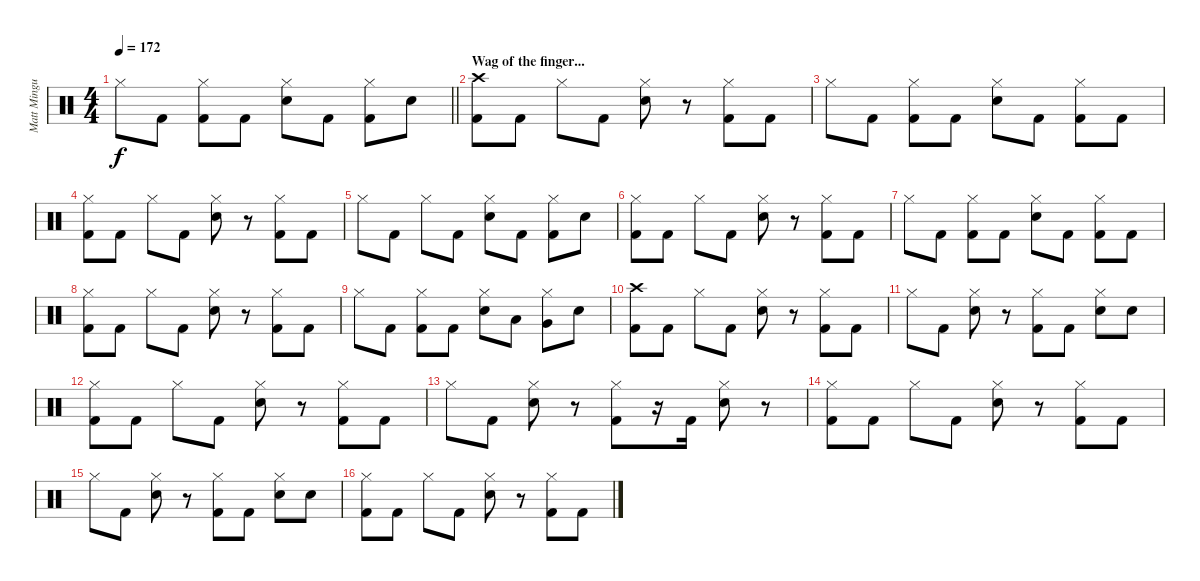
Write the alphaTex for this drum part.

\track ("Matt Mingus (Drum Kit)" "Matt Mingu") {instrument percussion}
\staff {score}
\articulation defaults
\ts (4 4)
\tempo 172
\clef neutral
\barLineRight lightlight
\ks c "Hi-Hat (closed)".8{dy f} "Kick (hit) 2".8
("Hi-Hat (closed)" "Kick (hit) 2").8 "Kick (hit) 2".8 ("Hi-Hat (closed)" "Electric Snare (hit)").8 "Kick (hit) 2".8 ("Hi-Hat (closed)" "Kick (hit) 2").8 "Electric Snare (hit)".8 |
\section ("" "Wag of the finger...")
("Crash high (hit)" "Kick (hit) 2").8 "Kick (hit) 2".8 "Hi-Hat (closed)".8 "Kick (hit) 2".8 ("Hi-Hat (closed)" "Electric Snare (hit)").8 r.8 ("Hi-Hat (closed)" "Kick (hit) 2").8 "Kick (hit) 2".8 |
"Hi-Hat (closed)".8 "Kick (hit) 2".8 ("Hi-Hat (closed)" "Kick (hit) 2").8 "Kick (hit) 2".8 ("Hi-Hat (closed)" "Electric Snare (hit)").8 "Kick (hit) 2".8 ("Hi-Hat (closed)" "Kick (hit) 2").8 "Kick (hit) 2".8 |
("Hi-Hat (closed)" "Kick (hit) 2").8 "Kick (hit) 2".8 "Hi-Hat (closed)".8 "Kick (hit) 2".8 ("Hi-Hat (closed)" "Electric Snare (hit)").8 r.8 ("Hi-Hat (closed)" "Kick (hit) 2").8 "Kick (hit) 2".8 |
"Hi-Hat (closed)".8 "Kick (hit) 2".8 "Hi-Hat (closed)".8 "Kick (hit) 2".8 ("Hi-Hat (closed)" "Electric Snare (hit)").8 "Kick (hit) 2".8 ("Hi-Hat (closed)" "Kick (hit) 2").8 "Electric Snare (hit)".8 |
("Hi-Hat (closed)" "Kick (hit) 2").8 "Kick (hit) 2".8 "Hi-Hat (closed)".8 "Kick (hit) 2".8 ("Hi-Hat (closed)" "Electric Snare (hit)").8 r.8 ("Hi-Hat (closed)" "Kick (hit) 2").8 "Kick (hit) 2".8 |
"Hi-Hat (closed)".8 "Kick (hit) 2".8 ("Hi-Hat (closed)" "Kick (hit) 2").8 "Kick (hit) 2".8 ("Hi-Hat (closed)" "Electric Snare (hit)").8 "Kick (hit) 2".8 ("Hi-Hat (closed)" "Kick (hit) 2").8 "Kick (hit) 2".8 |
("Hi-Hat (closed)" "Kick (hit) 2").8 "Kick (hit) 2".8 "Hi-Hat (closed)".8 "Kick (hit) 2".8 ("Hi-Hat (closed)" "Electric Snare (hit)").8 r.8 ("Hi-Hat (closed)" "Kick (hit) 2").8 "Kick (hit) 2".8 |
"Hi-Hat (closed)".8 "Kick (hit) 2".8 ("Hi-Hat (closed)" "Kick (hit) 2").8 "Kick (hit) 2".8 ("Hi-Hat (closed)" "Electric Snare (hit)").8 "Low Tom (hit)".8 ("Hi-Hat (closed)" "Very Low Tom (hit)").8 "Electric Snare (hit)".8 |
("Crash high (hit)" "Kick (hit) 2").8 "Kick (hit) 2".8 "Hi-Hat (closed)".8 "Kick (hit) 2".8 ("Hi-Hat (closed)" "Electric Snare (hit)").8 r.8 ("Hi-Hat (closed)" "Kick (hit) 2").8 "Kick (hit) 2".8 |
"Hi-Hat (closed)".8 "Kick (hit) 2".8 ("Hi-Hat (closed)" "Electric Snare (hit)").8 r.8 ("Hi-Hat (closed)" "Kick (hit) 2").8 "Kick (hit) 2".8 ("Hi-Hat (closed)" "Electric Snare (hit)").8 "Electric Snare (hit)".8 |
("Hi-Hat (closed)" "Kick (hit) 2").8 "Kick (hit) 2".8 "Hi-Hat (closed)".8 "Kick (hit) 2".8 ("Hi-Hat (closed)" "Electric Snare (hit)").8 r.8 ("Hi-Hat (closed)" "Kick (hit) 2").8 "Kick (hit) 2".8 |
"Hi-Hat (closed)".8 "Kick (hit) 2".8 ("Hi-Hat (closed)" "Electric Snare (hit)").8 r.8 ("Hi-Hat (closed)" "Kick (hit) 2").8 r.16 "Kick (hit) 2".16 ("Hi-Hat (closed)" "Electric Snare (hit)").8 r.8 |
("Hi-Hat (closed)" "Kick (hit) 2").8 "Kick (hit) 2".8 "Hi-Hat (closed)".8 "Kick (hit) 2".8 ("Hi-Hat (closed)" "Electric Snare (hit)").8 r.8 ("Hi-Hat (closed)" "Kick (hit) 2").8 "Kick (hit) 2".8 |
"Hi-Hat (closed)".8 "Kick (hit) 2".8 ("Hi-Hat (closed)" "Electric Snare (hit)").8 r.8 ("Hi-Hat (closed)" "Kick (hit) 2").8 "Kick (hit) 2".8 ("Hi-Hat (closed)" "Electric Snare (hit)").8 "Electric Snare (hit)".8 |
("Hi-Hat (closed)" "Kick (hit) 2").8 "Kick (hit) 2".8 "Hi-Hat (closed)".8 "Kick (hit) 2".8 ("Hi-Hat (closed)" "Electric Snare (hit)").8 r.8 ("Hi-Hat (closed)" "Kick (hit) 2").8 "Kick (hit) 2".8
